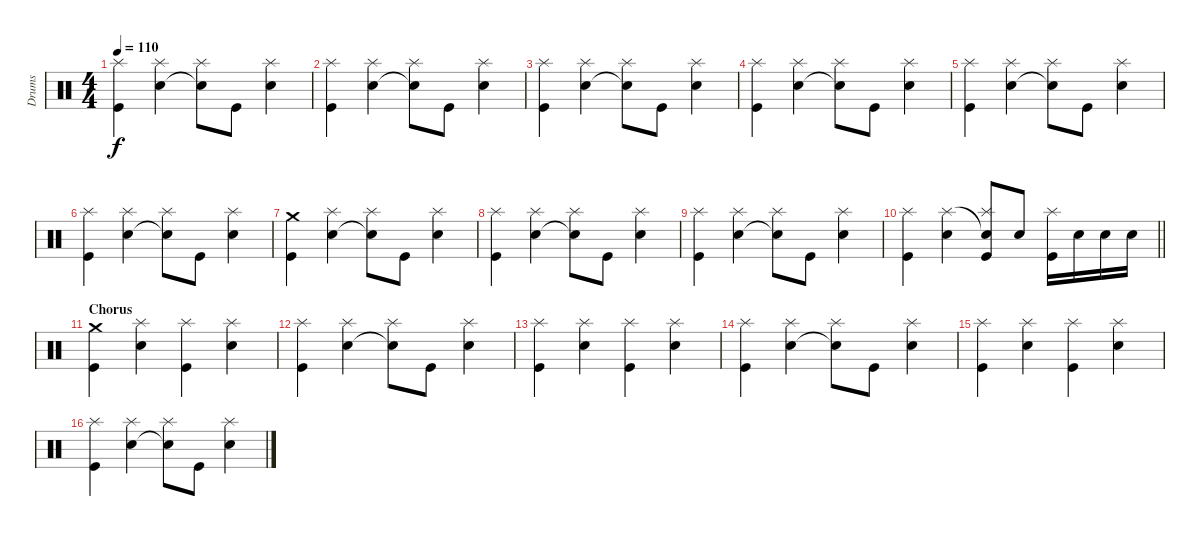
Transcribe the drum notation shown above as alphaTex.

\track ("Drums" "Drums") {instrument percussion}
\staff {score}
\articulation defaults
\ts (4 4)
\tempo 110
\clef neutral
\ks c
("Kick (hit)" "Splash (hit)").4{dy f} ("Electric Snare (hit)" "Splash (hit)").4 ("Electric Snare (hit)"{t} "Splash (hit)").8 "Kick (hit)".8 ("Electric Snare (hit)" "Splash (hit)").4 |
("Kick (hit)" "Splash (hit)").4 ("Electric Snare (hit)" "Splash (hit)").4 ("Electric Snare (hit)"{t} "Splash (hit)").8 "Kick (hit)".8 ("Electric Snare (hit)" "Splash (hit)").4 |
("Kick (hit)" "Splash (hit)").4 ("Electric Snare (hit)" "Splash (hit)").4 ("Electric Snare (hit)"{t} "Splash (hit)").8 "Kick (hit)".8 ("Electric Snare (hit)" "Splash (hit)").4 |
("Kick (hit)" "Splash (hit)").4 ("Electric Snare (hit)" "Splash (hit)").4 ("Electric Snare (hit)"{t} "Splash (hit)").8 "Kick (hit)".8 ("Electric Snare (hit)" "Splash (hit)").4 |
("Kick (hit)" "Splash (hit)").4 ("Electric Snare (hit)" "Splash (hit)").4 ("Electric Snare (hit)"{t} "Splash (hit)").8 "Kick (hit)".8 ("Electric Snare (hit)" "Splash (hit)").4 |
("Kick (hit)" "Splash (hit)").4 ("Electric Snare (hit)" "Splash (hit)").4 ("Electric Snare (hit)"{t} "Splash (hit)").8 "Kick (hit)".8 ("Electric Snare (hit)" "Splash (hit)").4 |
("Kick (hit)" "Crash medium (hit)").4 ("Electric Snare (hit)" "Splash (hit)").4 ("Electric Snare (hit)"{t} "Splash (hit)").8 "Kick (hit)".8 ("Electric Snare (hit)" "Splash (hit)").4 |
("Kick (hit)" "Splash (hit)").4 ("Electric Snare (hit)" "Splash (hit)").4 ("Electric Snare (hit)"{t} "Splash (hit)").8 "Kick (hit)".8 ("Electric Snare (hit)" "Splash (hit)").4 |
("Kick (hit)" "Splash (hit)").4 ("Electric Snare (hit)" "Splash (hit)").4 ("Electric Snare (hit)"{t} "Splash (hit)").8 "Kick (hit)".8 ("Electric Snare (hit)" "Splash (hit)").4 |
\barLineRight lightlight
("Kick (hit)" "Splash (hit)").4 ("Electric Snare (hit)" "Splash (hit)").4 ("Kick (hit)" "Electric Snare (hit)"{t} "Splash (hit)").8 "Electric Snare (hit)".8 ("Kick (hit)" "Splash (hit)").16 "Electric Snare (hit)".16 "Electric Snare (hit)".16 "Electric Snare (hit)".16 |
\section ("" "Chorus")
("Kick (hit)" "Crash medium (hit)").4 ("Electric Snare (hit)" "Splash (hit)").4 ("Kick (hit)" "Splash (hit)").4 ("Electric Snare (hit)" "Splash (hit)").4 |
("Kick (hit)" "Splash (hit)").4 ("Electric Snare (hit)" "Splash (hit)").4 ("Electric Snare (hit)"{t} "Splash (hit)").8 "Kick (hit)".8 ("Electric Snare (hit)" "Splash (hit)").4 |
("Kick (hit)" "Splash (hit)").4 ("Electric Snare (hit)" "Splash (hit)").4 ("Kick (hit)" "Splash (hit)").4 ("Electric Snare (hit)" "Splash (hit)").4 |
("Kick (hit)" "Splash (hit)").4 ("Electric Snare (hit)" "Splash (hit)").4 ("Electric Snare (hit)"{t} "Splash (hit)").8 "Kick (hit)".8 ("Electric Snare (hit)" "Splash (hit)").4 |
("Kick (hit)" "Splash (hit)").4 ("Electric Snare (hit)" "Splash (hit)").4 ("Kick (hit)" "Splash (hit)").4 ("Electric Snare (hit)" "Splash (hit)").4 |
("Kick (hit)" "Splash (hit)").4 ("Electric Snare (hit)" "Splash (hit)").4 ("Electric Snare (hit)"{t} "Splash (hit)").8 "Kick (hit)".8 ("Electric Snare (hit)" "Splash (hit)").4
